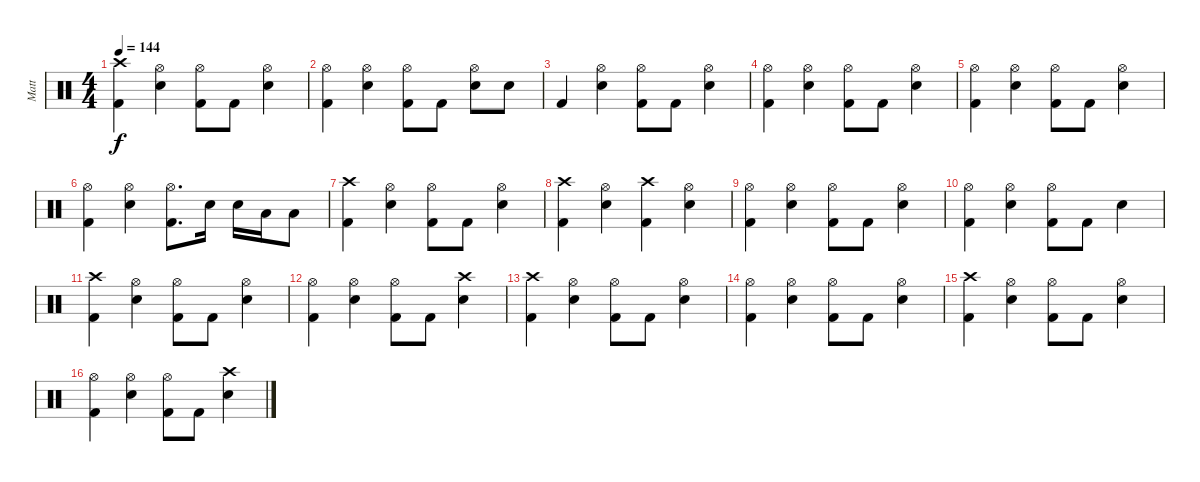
\track ("Matt" "Matt") {instrument percussion}
\staff {score}
\articulation defaults
\ts (4 4)
\tempo 144
\clef neutral
\ks c
("Crash high (hit)" "Kick (hit) 2").4{dy f} ("Hi-Hat (open)" "Electric Snare (hit)").4 ("Hi-Hat (open)" "Kick (hit) 2").8 "Kick (hit) 2".8 ("Hi-Hat (open)" "Electric Snare (hit)").4 |
("Hi-Hat (open)" "Kick (hit) 2").4 ("Hi-Hat (open)" "Electric Snare (hit)").4 ("Hi-Hat (open)" "Kick (hit) 2").8 "Kick (hit) 2".8 ("Hi-Hat (open)" "Electric Snare (hit)").8 "Electric Snare (hit)".8 |
"Kick (hit) 2".4 ("Hi-Hat (open)" "Electric Snare (hit)").4 ("Hi-Hat (open)" "Kick (hit) 2").8 "Kick (hit) 2".8 ("Hi-Hat (open)" "Electric Snare (hit)").4 |
("Hi-Hat (open)" "Kick (hit) 2").4 ("Hi-Hat (open)" "Electric Snare (hit)").4 ("Hi-Hat (open)" "Kick (hit) 2").8 "Kick (hit) 2".8 ("Hi-Hat (open)" "Electric Snare (hit)").4 |
("Hi-Hat (open)" "Kick (hit) 2").4 ("Hi-Hat (open)" "Electric Snare (hit)").4 ("Hi-Hat (open)" "Kick (hit) 2").8 "Kick (hit) 2".8 ("Hi-Hat (open)" "Electric Snare (hit)").4 |
("Hi-Hat (open)" "Kick (hit) 2").4 ("Hi-Hat (open)" "Electric Snare (hit)").4 ("Hi-Hat (open)" "Kick (hit) 2").8{d} "Electric Snare (hit)".16 "Electric Snare (hit)".16 "Low Tom (hit)".16 "Low Tom (hit)".8 |
("Crash high (hit)" "Kick (hit) 2").4 ("Hi-Hat (open)" "Electric Snare (hit)").4 ("Hi-Hat (open)" "Kick (hit) 2").8 "Kick (hit) 2".8 ("Hi-Hat (open)" "Electric Snare (hit)").4 |
("Crash high (hit)" "Kick (hit) 2").4 ("Hi-Hat (open)" "Electric Snare (hit)").4 ("Crash high (hit)" "Kick (hit) 2").4 ("Hi-Hat (open)" "Electric Snare (hit)").4 |
("Hi-Hat (open)" "Kick (hit) 2").4 ("Hi-Hat (open)" "Electric Snare (hit)").4 ("Hi-Hat (open)" "Kick (hit) 2").8 "Kick (hit) 2".8 ("Hi-Hat (open)" "Electric Snare (hit)").4 |
("Hi-Hat (open)" "Kick (hit) 2").4 ("Hi-Hat (open)" "Electric Snare (hit)").4 ("Hi-Hat (open)" "Kick (hit) 2").8 "Kick (hit) 2".8 "Electric Snare (hit)".4 |
("Crash high (hit)" "Kick (hit) 2").4 ("Hi-Hat (open)" "Electric Snare (hit)").4 ("Hi-Hat (open)" "Kick (hit) 2").8 "Kick (hit) 2".8 ("Hi-Hat (open)" "Electric Snare (hit)").4 |
("Hi-Hat (open)" "Kick (hit) 2").4 ("Hi-Hat (open)" "Electric Snare (hit)").4 ("Hi-Hat (open)" "Kick (hit) 2").8 "Kick (hit) 2".8 ("Crash high (hit)" "Electric Snare (hit)").4 |
("Crash high (hit)" "Kick (hit) 2").4 ("Hi-Hat (open)" "Electric Snare (hit)").4 ("Hi-Hat (open)" "Kick (hit) 2").8 "Kick (hit) 2".8 ("Hi-Hat (open)" "Electric Snare (hit)").4 |
("Hi-Hat (open)" "Kick (hit) 2").4 ("Hi-Hat (open)" "Electric Snare (hit)").4 ("Hi-Hat (open)" "Kick (hit) 2").8 "Kick (hit) 2".8 ("Hi-Hat (open)" "Electric Snare (hit)").4 |
("Crash high (hit)" "Kick (hit) 2").4 ("Hi-Hat (open)" "Electric Snare (hit)").4 ("Hi-Hat (open)" "Kick (hit) 2").8 "Kick (hit) 2".8 ("Hi-Hat (open)" "Electric Snare (hit)").4 |
("Hi-Hat (open)" "Kick (hit) 2").4 ("Hi-Hat (open)" "Electric Snare (hit)").4 ("Hi-Hat (open)" "Kick (hit) 2").8 "Kick (hit) 2".8 ("Crash high (hit)" "Electric Snare (hit)").4
